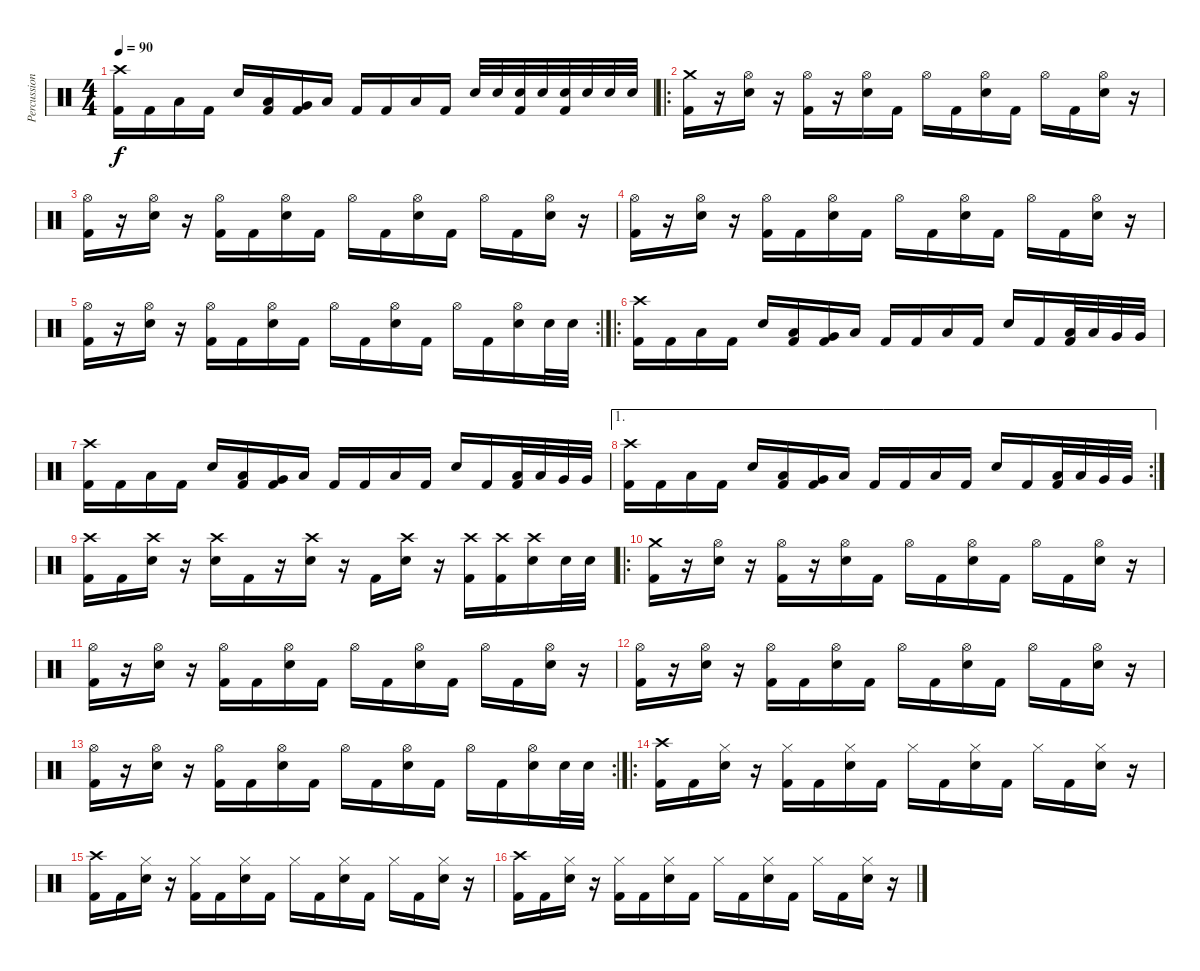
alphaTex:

\track ("Percussion" "Percussion") {instrument percussion}
\staff {score}
\articulation defaults
\ts (4 4)
\tempo 90
\clef neutral
\ks c
("Kick (hit) 2" "Crash high (hit)").16{dy f} "Kick (hit) 2".16 "Low Floor Tom (hit)".16 "Kick (hit) 2".16 "Snare (hit) 2".16 ("Kick (hit) 2" "Low Floor Tom (hit)").16 ("Kick (hit) 2" "Very Low Tom (hit)").16 "Low Tom (hit)".16 "Kick (hit) 2".16 "Kick (hit) 2".16 "Low Floor Tom (hit)".16 "Kick (hit) 2".16 "Snare (hit) 2".32 "Snare (hit) 2".32 ("Kick (hit) 2" "Snare (hit) 2").32 "Snare (hit) 2".32 ("Kick (hit) 2" "Snare (hit) 2").32 "Snare (hit) 2".32 "Snare (hit) 2".32 "Snare (hit) 2".32 |
\ro
("Kick (hit) 2" "Crash medium (hit)").16 r.16 ("Snare (hit) 2" "Hi-Hat (open)").16 r.16 ("Kick (hit) 2" "Hi-Hat (open)").16 r.16 ("Snare (hit) 2" "Hi-Hat (open)").16 "Kick (hit) 2".16 "Hi-Hat (open)".16 "Kick (hit) 2".16 ("Snare (hit) 2" "Hi-Hat (open)").16 "Kick (hit) 2".16 "Hi-Hat (open)".16 "Kick (hit) 2".16 ("Snare (hit) 2" "Hi-Hat (open)").16 r.16 |
("Kick (hit) 2" "Hi-Hat (open)").16 r.16 ("Snare (hit) 2" "Hi-Hat (open)").16 r.16 ("Kick (hit) 2" "Hi-Hat (open)").16 "Kick (hit) 2".16 ("Snare (hit) 2" "Hi-Hat (open)").16 "Kick (hit) 2".16 "Hi-Hat (open)".16 "Kick (hit) 2".16 ("Snare (hit) 2" "Hi-Hat (open)").16 "Kick (hit) 2".16 "Hi-Hat (open)".16 "Kick (hit) 2".16 ("Snare (hit) 2" "Hi-Hat (open)").16 r.16 |
("Kick (hit) 2" "Hi-Hat (open)").16 r.16 ("Snare (hit) 2" "Hi-Hat (open)").16 r.16 ("Kick (hit) 2" "Hi-Hat (open)").16 "Kick (hit) 2".16 ("Snare (hit) 2" "Hi-Hat (open)").16 "Kick (hit) 2".16 "Hi-Hat (open)".16 "Kick (hit) 2".16 ("Snare (hit) 2" "Hi-Hat (open)").16 "Kick (hit) 2".16 "Hi-Hat (open)".16 "Kick (hit) 2".16 ("Snare (hit) 2" "Hi-Hat (open)").16 r.16 |
\rc 2
("Kick (hit) 2" "Hi-Hat (open)").16 r.16 ("Snare (hit) 2" "Hi-Hat (open)").16 r.16 ("Kick (hit) 2" "Hi-Hat (open)").16 "Kick (hit) 2".16 ("Snare (hit) 2" "Hi-Hat (open)").16 "Kick (hit) 2".16 "Hi-Hat (open)".16 "Kick (hit) 2".16 ("Snare (hit) 2" "Hi-Hat (open)").16 "Kick (hit) 2".16 "Hi-Hat (open)".16 "Kick (hit) 2".16 ("Snare (hit) 2" "Hi-Hat (open)").16 "Snare (hit) 2".32 "Snare (hit) 2".32 |
\ro
("Kick (hit) 2" "Crash high (hit)").16 "Kick (hit) 2".16 "Low Floor Tom (hit)".16 "Kick (hit) 2".16 "Snare (hit) 2".16 ("Kick (hit) 2" "Low Floor Tom (hit)").16 ("Kick (hit) 2" "Very Low Tom (hit)").16 "Low Tom (hit)".16 "Kick (hit) 2".16 "Kick (hit) 2".16 "Low Floor Tom (hit)".16 "Kick (hit) 2".16 "Snare (hit) 2".16 "Kick (hit) 2".16 ("Kick (hit) 2" "Low Tom (hit)").32 "Low Tom (hit)".32 "Very Low Tom (hit)".32 "Very Low Tom (hit)".32 |
("Kick (hit) 2" "Crash high (hit)").16 "Kick (hit) 2".16 "Low Floor Tom (hit)".16 "Kick (hit) 2".16 "Snare (hit) 2".16 ("Kick (hit) 2" "Low Floor Tom (hit)").16 ("Kick (hit) 2" "Very Low Tom (hit)").16 "Low Tom (hit)".16 "Kick (hit) 2".16 "Kick (hit) 2".16 "Low Floor Tom (hit)".16 "Kick (hit) 2".16 "Snare (hit) 2".16 "Kick (hit) 2".16 ("Kick (hit) 2" "Low Tom (hit)").32 "Low Tom (hit)".32 "Very Low Tom (hit)".32 "Very Low Tom (hit)".32 |
\ae 1
\rc 2
("Kick (hit) 2" "Crash high (hit)").16 "Kick (hit) 2".16 "Low Floor Tom (hit)".16 "Kick (hit) 2".16 "Snare (hit) 2".16 ("Kick (hit) 2" "Low Floor Tom (hit)").16 ("Kick (hit) 2" "Very Low Tom (hit)").16 "Low Tom (hit)".16 "Kick (hit) 2".16 "Kick (hit) 2".16 "Low Floor Tom (hit)".16 "Kick (hit) 2".16 "Snare (hit) 2".16 "Kick (hit) 2".16 ("Kick (hit) 2" "Low Tom (hit)").32 "Low Tom (hit)".32 "Very Low Tom (hit)".32 "Very Low Tom (hit)".32 |
("Kick (hit) 2" "Crash high (hit)").16 "Kick (hit) 2".16 ("Snare (hit) 2" "Crash high (hit)").16 r.16 ("Snare (hit) 2" "Crash high (hit)").16 "Kick (hit) 2".16 r.16 ("Snare (hit) 2" "Crash high (hit)").16 r.16 "Kick (hit) 2".16 ("Snare (hit) 2" "Crash high (hit)").16 r.16 ("Kick (hit) 2" "Crash high (hit)").16 ("Kick (hit) 2" "Crash high (hit)").16 ("Snare (hit) 2" "Crash high (hit)").16 "Snare (hit) 2".32 "Snare (hit) 2".32 |
\ro
("Kick (hit) 2" "Crash medium (hit)").16 r.16 ("Snare (hit) 2" "Hi-Hat (open)").16 r.16 ("Kick (hit) 2" "Hi-Hat (open)").16 r.16 ("Snare (hit) 2" "Hi-Hat (open)").16 "Kick (hit) 2".16 "Hi-Hat (open)".16 "Kick (hit) 2".16 ("Snare (hit) 2" "Hi-Hat (open)").16 "Kick (hit) 2".16 "Hi-Hat (open)".16 "Kick (hit) 2".16 ("Snare (hit) 2" "Hi-Hat (open)").16 r.16 |
("Kick (hit) 2" "Hi-Hat (open)").16 r.16 ("Snare (hit) 2" "Hi-Hat (open)").16 r.16 ("Kick (hit) 2" "Hi-Hat (open)").16 "Kick (hit) 2".16 ("Snare (hit) 2" "Hi-Hat (open)").16 "Kick (hit) 2".16 "Hi-Hat (open)".16 "Kick (hit) 2".16 ("Snare (hit) 2" "Hi-Hat (open)").16 "Kick (hit) 2".16 "Hi-Hat (open)".16 "Kick (hit) 2".16 ("Snare (hit) 2" "Hi-Hat (open)").16 r.16 |
("Kick (hit) 2" "Hi-Hat (open)").16 r.16 ("Snare (hit) 2" "Hi-Hat (open)").16 r.16 ("Kick (hit) 2" "Hi-Hat (open)").16 "Kick (hit) 2".16 ("Snare (hit) 2" "Hi-Hat (open)").16 "Kick (hit) 2".16 "Hi-Hat (open)".16 "Kick (hit) 2".16 ("Snare (hit) 2" "Hi-Hat (open)").16 "Kick (hit) 2".16 "Hi-Hat (open)".16 "Kick (hit) 2".16 ("Snare (hit) 2" "Hi-Hat (open)").16 r.16 |
\rc 2
("Kick (hit) 2" "Hi-Hat (open)").16 r.16 ("Snare (hit) 2" "Hi-Hat (open)").16 r.16 ("Kick (hit) 2" "Hi-Hat (open)").16 "Kick (hit) 2".16 ("Snare (hit) 2" "Hi-Hat (open)").16 "Kick (hit) 2".16 "Hi-Hat (open)".16 "Kick (hit) 2".16 ("Snare (hit) 2" "Hi-Hat (open)").16 "Kick (hit) 2".16 "Hi-Hat (open)".16 "Kick (hit) 2".16 ("Snare (hit) 2" "Hi-Hat (open)").16 "Snare (hit) 2".32 "Snare (hit) 2".32 |
\ro
("Kick (hit) 2" "Crash high (hit)").16 "Kick (hit) 2".16 ("Snare (hit) 2" "Hi-Hat (closed)").16 r.16 ("Kick (hit) 2" "Hi-Hat (closed)").16 "Kick (hit) 2".16 ("Snare (hit) 2" "Hi-Hat (closed)").16 "Kick (hit) 2".16 "Hi-Hat (closed)".16 "Kick (hit) 2".16 ("Snare (hit) 2" "Hi-Hat (closed)").16 "Kick (hit) 2".16 "Hi-Hat (closed)".16 "Kick (hit) 2".16 ("Snare (hit) 2" "Hi-Hat (closed)").16 r.16 |
("Kick (hit) 2" "Crash high (hit)").16 "Kick (hit) 2".16 ("Snare (hit) 2" "Hi-Hat (closed)").16 r.16 ("Kick (hit) 2" "Hi-Hat (closed)").16 "Kick (hit) 2".16 ("Snare (hit) 2" "Hi-Hat (closed)").16 "Kick (hit) 2".16 "Hi-Hat (closed)".16 "Kick (hit) 2".16 ("Snare (hit) 2" "Hi-Hat (closed)").16 "Kick (hit) 2".16 "Hi-Hat (closed)".16 "Kick (hit) 2".16 ("Snare (hit) 2" "Hi-Hat (closed)").16 r.16 |
("Kick (hit) 2" "Crash high (hit)").16 "Kick (hit) 2".16 ("Snare (hit) 2" "Hi-Hat (closed)").16 r.16 ("Kick (hit) 2" "Hi-Hat (closed)").16 "Kick (hit) 2".16 ("Snare (hit) 2" "Hi-Hat (closed)").16 "Kick (hit) 2".16 "Hi-Hat (closed)".16 "Kick (hit) 2".16 ("Snare (hit) 2" "Hi-Hat (closed)").16 "Kick (hit) 2".16 "Hi-Hat (closed)".16 "Kick (hit) 2".16 ("Snare (hit) 2" "Hi-Hat (closed)").16 r.16
